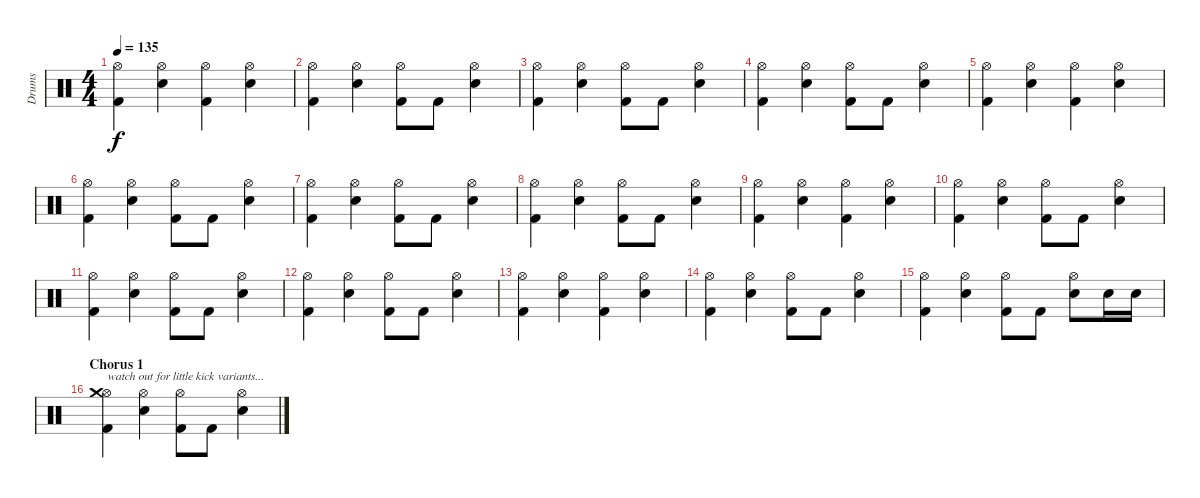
\track ("Drums" "Drums") {instrument percussion}
\staff {score}
\articulation defaults
\ts (4 4)
\tempo 135
\clef neutral
\ks c
("Hi-Hat (open)" "Kick (hit) 2").4{dy f} ("Hi-Hat (open)" "Snare (hit) 2").4 ("Hi-Hat (open)" "Kick (hit) 2").4 ("Hi-Hat (open)" "Snare (hit) 2").4 |
("Hi-Hat (open)" "Kick (hit) 2").4 ("Hi-Hat (open)" "Snare (hit) 2").4 ("Hi-Hat (open)" "Kick (hit) 2").8 "Kick (hit) 2".8 ("Hi-Hat (open)" "Snare (hit) 2").4 |
("Hi-Hat (open)" "Kick (hit) 2").4 ("Hi-Hat (open)" "Snare (hit) 2").4 ("Hi-Hat (open)" "Kick (hit) 2").8 "Kick (hit) 2".8 ("Hi-Hat (open)" "Snare (hit) 2").4 |
("Hi-Hat (open)" "Kick (hit) 2").4 ("Hi-Hat (open)" "Snare (hit) 2").4 ("Hi-Hat (open)" "Kick (hit) 2").8 "Kick (hit) 2".8 ("Hi-Hat (open)" "Snare (hit) 2").4 |
("Hi-Hat (open)" "Kick (hit) 2").4 ("Hi-Hat (open)" "Snare (hit) 2").4 ("Hi-Hat (open)" "Kick (hit) 2").4 ("Hi-Hat (open)" "Snare (hit) 2").4 |
("Hi-Hat (open)" "Kick (hit) 2").4 ("Hi-Hat (open)" "Snare (hit) 2").4 ("Hi-Hat (open)" "Kick (hit) 2").8 "Kick (hit) 2".8 ("Hi-Hat (open)" "Snare (hit) 2").4 |
("Hi-Hat (open)" "Kick (hit) 2").4 ("Hi-Hat (open)" "Snare (hit) 2").4 ("Hi-Hat (open)" "Kick (hit) 2").8 "Kick (hit) 2".8 ("Hi-Hat (open)" "Snare (hit) 2").4 |
("Hi-Hat (open)" "Kick (hit) 2").4 ("Hi-Hat (open)" "Snare (hit) 2").4 ("Hi-Hat (open)" "Kick (hit) 2").8 "Kick (hit) 2".8 ("Hi-Hat (open)" "Snare (hit) 2").4 |
("Hi-Hat (open)" "Kick (hit) 2").4 ("Hi-Hat (open)" "Snare (hit) 2").4 ("Hi-Hat (open)" "Kick (hit) 2").4 ("Hi-Hat (open)" "Snare (hit) 2").4 |
("Hi-Hat (open)" "Kick (hit) 2").4 ("Hi-Hat (open)" "Snare (hit) 2").4 ("Hi-Hat (open)" "Kick (hit) 2").8 "Kick (hit) 2".8 ("Hi-Hat (open)" "Snare (hit) 2").4 |
("Hi-Hat (open)" "Kick (hit) 2").4 ("Hi-Hat (open)" "Snare (hit) 2").4 ("Hi-Hat (open)" "Kick (hit) 2").8 "Kick (hit) 2".8 ("Hi-Hat (open)" "Snare (hit) 2").4 |
("Hi-Hat (open)" "Kick (hit) 2").4 ("Hi-Hat (open)" "Snare (hit) 2").4 ("Hi-Hat (open)" "Kick (hit) 2").8 "Kick (hit) 2".8 ("Hi-Hat (open)" "Snare (hit) 2").4 |
("Hi-Hat (open)" "Kick (hit) 2").4 ("Hi-Hat (open)" "Snare (hit) 2").4 ("Hi-Hat (open)" "Kick (hit) 2").4 ("Hi-Hat (open)" "Snare (hit) 2").4 |
("Hi-Hat (open)" "Kick (hit) 2").4 ("Hi-Hat (open)" "Snare (hit) 2").4 ("Hi-Hat (open)" "Kick (hit) 2").8 "Kick (hit) 2".8 ("Hi-Hat (open)" "Snare (hit) 2").4 |
("Hi-Hat (open)" "Kick (hit) 2").4 ("Hi-Hat (open)" "Snare (hit) 2").4 ("Hi-Hat (open)" "Kick (hit) 2").8 "Kick (hit) 2".8 ("Hi-Hat (open)" "Snare (hit) 2").8 "Snare (hit) 2".16 "Snare (hit) 2".16 |
\section ("" "Chorus 1")
("Hi-Hat (open)" "Crash medium (hit)" "Kick (hit) 2").4{txt "watch out for little kick variants..."} ("Hi-Hat (open)" "Snare (hit) 2").4 ("Hi-Hat (open)" "Kick (hit) 2").8 "Kick (hit) 2".8 ("Hi-Hat (open)" "Snare (hit) 2").4
